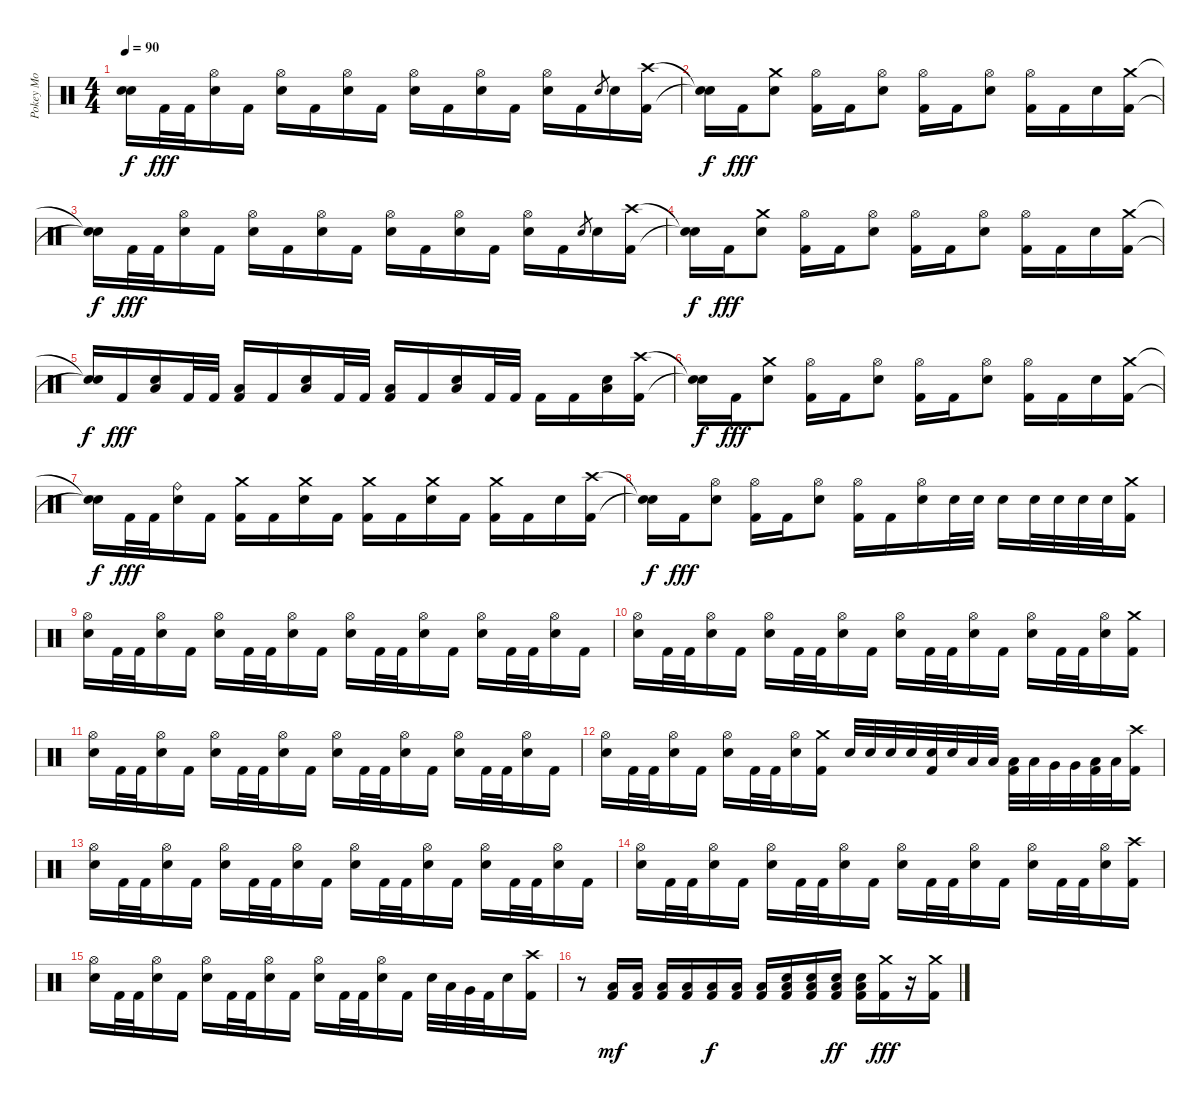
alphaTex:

\track ("Pokey Mo" "Pokey Mo") {instrument percussion}
\staff {score}
\articulation defaults
\ts (4 4)
\tempo 90
\clef neutral
\ks c
("Snare (hit)"{t} "Snare (hit)"{t}).16{dy f} "Kick (hit) 2".32{dy fff} "Kick (hit) 2".32 ("Hi-Hat (open)" "Electric Snare (hit)").16 "Kick (hit) 2".16 ("Hi-Hat (open)" "Electric Snare (hit)").16 "Kick (hit) 2".16 ("Hi-Hat (open)" "Electric Snare (hit)").16 "Kick (hit) 2".16 ("Hi-Hat (open)" "Electric Snare (hit)").16 "Kick (hit) 2".16 ("Hi-Hat (open)" "Electric Snare (hit)").16 "Kick (hit) 2".16 ("Hi-Hat (open)" "Electric Snare (hit)").16 "Kick (hit) 2".16 "Electric Snare (hit)".8{gr} "Electric Snare (hit)".16 ("Crash high (hit)" "Kick (hit) 2").16 |
("Snare (hit)"{t} "Snare (hit)"{t}).16{dy f} "Kick (hit) 2".16{dy fff} ("Crash medium (hit)" "Electric Snare (hit)").8 ("Hi-Hat (open)" "Kick (hit) 2").16 "Kick (hit) 2".16 ("Hi-Hat (open)" "Electric Snare (hit)").8 ("Hi-Hat (open)" "Kick (hit) 2").16 "Kick (hit) 2".16 ("Hi-Hat (open)" "Electric Snare (hit)").8 ("Hi-Hat (open)" "Kick (hit) 2").16 "Kick (hit) 2".16 "Electric Snare (hit)".16 ("Crash medium (hit)" "Kick (hit) 2").16 |
("Snare (hit)"{t} "Snare (hit)"{t}).16{dy f} "Kick (hit) 2".32{dy fff} "Kick (hit) 2".32 ("Hi-Hat (open)" "Electric Snare (hit)").16 "Kick (hit) 2".16 ("Hi-Hat (open)" "Electric Snare (hit)").16 "Kick (hit) 2".16 ("Hi-Hat (open)" "Electric Snare (hit)").16 "Kick (hit) 2".16 ("Hi-Hat (open)" "Electric Snare (hit)").16 "Kick (hit) 2".16 ("Hi-Hat (open)" "Electric Snare (hit)").16 "Kick (hit) 2".16 ("Hi-Hat (open)" "Electric Snare (hit)").16 "Kick (hit) 2".16 "Electric Snare (hit)".8{gr} "Electric Snare (hit)".16 ("Crash high (hit)" "Kick (hit) 2").16 |
("Snare (hit)"{t} "Snare (hit)"{t}).16{dy f} "Kick (hit) 2".16{dy fff} ("Crash medium (hit)" "Electric Snare (hit)").8 ("Hi-Hat (open)" "Kick (hit) 2").16 "Kick (hit) 2".16 ("Hi-Hat (open)" "Electric Snare (hit)").8 ("Hi-Hat (open)" "Kick (hit) 2").16 "Kick (hit) 2".16 ("Hi-Hat (open)" "Electric Snare (hit)").8 ("Hi-Hat (open)" "Kick (hit) 2").16 "Kick (hit) 2".16 "Electric Snare (hit)".16 ("Crash medium (hit)" "Kick (hit) 2").16 |
("Snare (hit)"{t} "Snare (hit)"{t}).16{dy f} "Kick (hit) 2".16{dy fff} ("Electric Snare (hit)" "Low Floor Tom (hit)").16 "Kick (hit) 2".32 "Kick (hit) 2".32 ("Low Floor Tom (hit)" "Kick (hit) 2").16 "Kick (hit) 2".16 ("Electric Snare (hit)" "Low Floor Tom (hit)").16 "Kick (hit) 2".32 "Kick (hit) 2".32 ("Low Floor Tom (hit)" "Kick (hit) 2").16 "Kick (hit) 2".16 ("Electric Snare (hit)" "Low Floor Tom (hit)").16 "Kick (hit) 2".32 "Kick (hit) 2".32 "Kick (hit) 2".16 "Kick (hit) 2".16 ("Electric Snare (hit)" "Low Floor Tom (hit)").16 ("Crash high (hit)" "Kick (hit) 2").16 |
("Snare (hit)"{t} "Snare (hit)"{t}).16{dy f} "Kick (hit) 2".16{dy fff} ("Crash medium (hit)" "Electric Snare (hit)").8 ("Hi-Hat (open)" "Kick (hit) 2").16 "Kick (hit) 2".16 ("Hi-Hat (open)" "Electric Snare (hit)").8 ("Hi-Hat (open)" "Kick (hit) 2").16 "Kick (hit) 2".16 ("Hi-Hat (open)" "Electric Snare (hit)").8 ("Hi-Hat (open)" "Kick (hit) 2").16 "Kick (hit) 2".16 "Electric Snare (hit)".16 ("Crash medium (hit)" "Kick (hit) 2").16 |
("Snare (hit)"{t} "Snare (hit)"{t}).16{dy f} "Kick (hit) 2".32{dy fff} "Kick (hit) 2".32 ("Ride (bell)" "Electric Snare (hit)").16 "Kick (hit) 2".16 ("Crash medium (hit)" "Kick (hit) 2").16 "Kick (hit) 2".16 ("Crash medium (hit)" "Electric Snare (hit)").16 "Kick (hit) 2".16 ("Crash medium (hit)" "Kick (hit) 2").16 "Kick (hit) 2".16 ("Crash medium (hit)" "Electric Snare (hit)").16 "Kick (hit) 2".16 ("Crash medium (hit)" "Kick (hit) 2").16 "Kick (hit) 2".16 "Electric Snare (hit)".16 ("Crash high (hit)" "Kick (hit) 2").16 |
("Snare (hit)"{t} "Snare (hit)"{t}).16{dy f} "Kick (hit) 2".16{dy fff} ("Hi-Hat (open)" "Electric Snare (hit)").8 ("Hi-Hat (open)" "Kick (hit) 2").16 "Kick (hit) 2".16 ("Hi-Hat (open)" "Electric Snare (hit)").8 ("Hi-Hat (open)" "Kick (hit) 2").16 "Kick (hit) 2".16 ("Hi-Hat (open)" "Electric Snare (hit)").16 "Electric Snare (hit)".32 "Electric Snare (hit)".32 "Electric Snare (hit)".16 "Electric Snare (hit)".32 "Electric Snare (hit)".32 "Electric Snare (hit)".32 "Electric Snare (hit)".32 ("Crash medium (hit)" "Kick (hit) 2").16 |
("Hi-Hat (open)" "Electric Snare (hit)").16 "Kick (hit) 2".32 "Kick (hit) 2".32 ("Hi-Hat (open)" "Electric Snare (hit)").16 "Kick (hit) 2".16 ("Hi-Hat (open)" "Electric Snare (hit)").16 "Kick (hit) 2".32 "Kick (hit) 2".32 ("Hi-Hat (open)" "Electric Snare (hit)").16 "Kick (hit) 2".16 ("Hi-Hat (open)" "Electric Snare (hit)").16 "Kick (hit) 2".32 "Kick (hit) 2".32 ("Hi-Hat (open)" "Electric Snare (hit)").16 "Kick (hit) 2".16 ("Hi-Hat (open)" "Electric Snare (hit)").16 "Kick (hit) 2".32 "Kick (hit) 2".32 ("Hi-Hat (open)" "Electric Snare (hit)").16 "Kick (hit) 2".16 |
("Hi-Hat (open)" "Electric Snare (hit)").16 "Kick (hit) 2".32 "Kick (hit) 2".32 ("Hi-Hat (open)" "Electric Snare (hit)").16 "Kick (hit) 2".16 ("Hi-Hat (open)" "Electric Snare (hit)").16 "Kick (hit) 2".32 "Kick (hit) 2".32 ("Hi-Hat (open)" "Electric Snare (hit)").16 "Kick (hit) 2".16 ("Hi-Hat (open)" "Electric Snare (hit)").16 "Kick (hit) 2".32 "Kick (hit) 2".32 ("Hi-Hat (open)" "Electric Snare (hit)").16 "Kick (hit) 2".16 ("Hi-Hat (open)" "Electric Snare (hit)").16 "Kick (hit) 2".32 "Kick (hit) 2".32 ("Hi-Hat (open)" "Electric Snare (hit)").16 ("Crash medium (hit)" "Kick (hit) 2").16 |
("Hi-Hat (open)" "Electric Snare (hit)").16 "Kick (hit) 2".32 "Kick (hit) 2".32 ("Hi-Hat (open)" "Electric Snare (hit)").16 "Kick (hit) 2".16 ("Hi-Hat (open)" "Electric Snare (hit)").16 "Kick (hit) 2".32 "Kick (hit) 2".32 ("Hi-Hat (open)" "Electric Snare (hit)").16 "Kick (hit) 2".16 ("Hi-Hat (open)" "Electric Snare (hit)").16 "Kick (hit) 2".32 "Kick (hit) 2".32 ("Hi-Hat (open)" "Electric Snare (hit)").16 "Kick (hit) 2".16 ("Hi-Hat (open)" "Electric Snare (hit)").16 "Kick (hit) 2".32 "Kick (hit) 2".32 ("Hi-Hat (open)" "Electric Snare (hit)").16 "Kick (hit) 2".16 |
("Hi-Hat (open)" "Electric Snare (hit)").16 "Kick (hit) 2".32 "Kick (hit) 2".32 ("Hi-Hat (open)" "Electric Snare (hit)").16 "Kick (hit) 2".16 ("Hi-Hat (open)" "Electric Snare (hit)").16 "Kick (hit) 2".32 "Kick (hit) 2".32 ("Hi-Hat (open)" "Electric Snare (hit)").16 ("Crash medium (hit)" "Kick (hit) 2").16 "Electric Snare (hit)".32 "Electric Snare (hit)".32 "Electric Snare (hit)".32 "Electric Snare (hit)".32 ("Electric Snare (hit)" "Kick (hit) 2").32 "Electric Snare (hit)".32 "Low Tom (hit)".32 "Low Tom (hit)".32 ("Low Tom (hit)" "Kick (hit) 2").32 "Low Tom (hit)".32 "Very Low Tom (hit)".32 "Very Low Tom (hit)".32 ("Low Floor Tom (hit)" "Kick (hit) 2").32 "Low Floor Tom (hit)".32 ("Crash high (hit)" "Kick (hit) 2").16 |
("Hi-Hat (open)" "Electric Snare (hit)").16 "Kick (hit) 2".32 "Kick (hit) 2".32 ("Hi-Hat (open)" "Electric Snare (hit)").16 "Kick (hit) 2".16 ("Hi-Hat (open)" "Electric Snare (hit)").16 "Kick (hit) 2".32 "Kick (hit) 2".32 ("Hi-Hat (open)" "Electric Snare (hit)").16 "Kick (hit) 2".16 ("Hi-Hat (open)" "Electric Snare (hit)").16 "Kick (hit) 2".32 "Kick (hit) 2".32 ("Hi-Hat (open)" "Electric Snare (hit)").16 "Kick (hit) 2".16 ("Hi-Hat (open)" "Electric Snare (hit)").16 "Kick (hit) 2".32 "Kick (hit) 2".32 ("Hi-Hat (open)" "Electric Snare (hit)").16 "Kick (hit) 2".16 |
("Hi-Hat (open)" "Electric Snare (hit)").16 "Kick (hit) 2".32 "Kick (hit) 2".32 ("Hi-Hat (open)" "Electric Snare (hit)").16 "Kick (hit) 2".16 ("Hi-Hat (open)" "Electric Snare (hit)").16 "Kick (hit) 2".32 "Kick (hit) 2".32 ("Hi-Hat (open)" "Electric Snare (hit)").16 "Kick (hit) 2".16 ("Hi-Hat (open)" "Electric Snare (hit)").16 "Kick (hit) 2".32 "Kick (hit) 2".32 ("Hi-Hat (open)" "Electric Snare (hit)").16 "Kick (hit) 2".16 ("Hi-Hat (open)" "Electric Snare (hit)").16 "Kick (hit) 2".32 "Kick (hit) 2".32 ("Hi-Hat (open)" "Electric Snare (hit)").16 ("Crash high (hit)" "Kick (hit) 2").16 |
("Hi-Hat (open)" "Electric Snare (hit)").16 "Kick (hit) 2".32 "Kick (hit) 2".32 ("Hi-Hat (open)" "Electric Snare (hit)").16 "Kick (hit) 2".16 ("Hi-Hat (open)" "Electric Snare (hit)").16 "Kick (hit) 2".32 "Kick (hit) 2".32 ("Hi-Hat (open)" "Electric Snare (hit)").16 "Kick (hit) 2".16 ("Hi-Hat (open)" "Electric Snare (hit)").16 "Kick (hit) 2".32 "Kick (hit) 2".32 ("Hi-Hat (open)" "Electric Snare (hit)").16 "Kick (hit) 2".16 "Electric Snare (hit)".32 "Low Tom (hit)".32 "Very Low Tom (hit)".32 "Kick (hit) 2".32 "Electric Snare (hit)".16 ("Crash high (hit)" "Kick (hit) 2").16 |
r.8 ("Low Floor Tom (hit)" "Kick (hit) 2").16{dy mf} ("Low Floor Tom (hit)" "Kick (hit) 2").16 ("Low Floor Tom (hit)" "Kick (hit) 2").16 ("Low Floor Tom (hit)" "Kick (hit) 2").16 ("Low Floor Tom (hit)" "Kick (hit) 2").16{dy f} ("Low Floor Tom (hit)" "Kick (hit) 2").16 ("Low Floor Tom (hit)" "Kick (hit) 2").16 ("Electric Snare (hit)" "Low Floor Tom (hit)" "Kick (hit) 2").16 ("Electric Snare (hit)" "Low Floor Tom (hit)" "Kick (hit) 2").16 ("Electric Snare (hit)" "Low Floor Tom (hit)" "Kick (hit) 2").16{dy ff} ("Electric Snare (hit)" "Low Floor Tom (hit)" "Kick (hit) 2").16 ("Crash medium (hit)" "Kick (hit) 2").16{dy fff} r.16 ("Crash medium (hit)" "Kick (hit) 2").16
